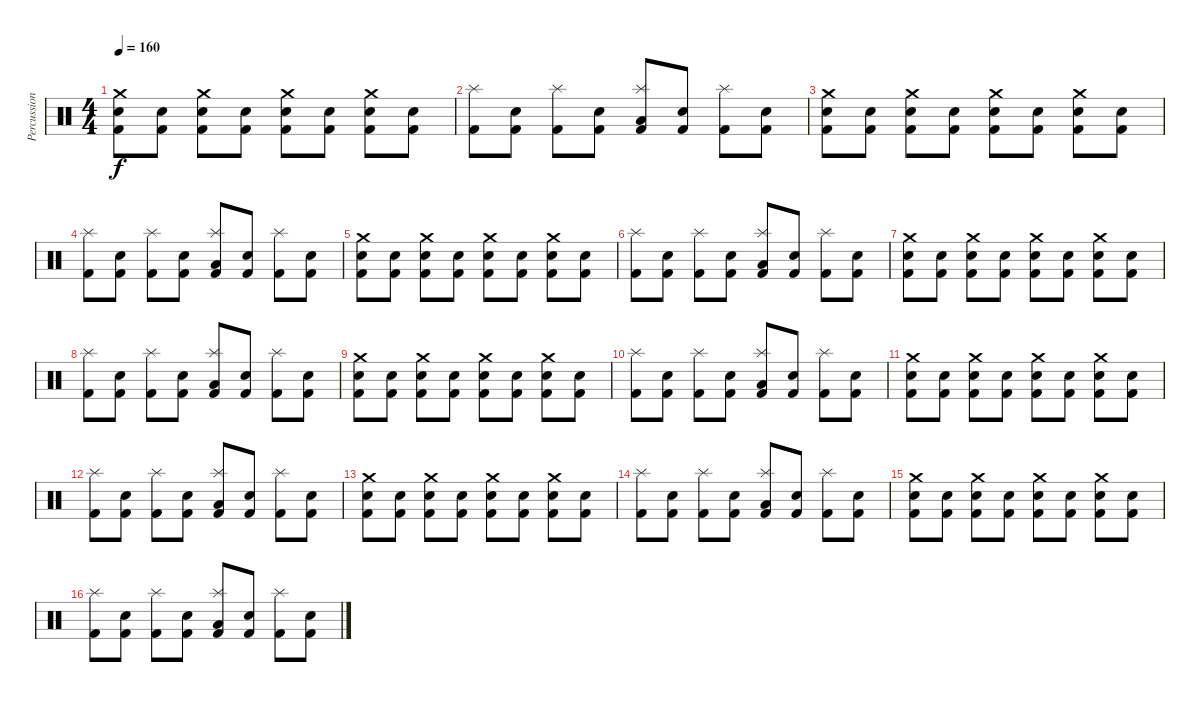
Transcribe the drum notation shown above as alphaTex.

\track ("Percussion" "Percussion") {instrument percussion}
\staff {score}
\articulation defaults
\ts (4 4)
\tempo 160
\clef neutral
\ks c
("Kick (hit) 2" "Snare (hit) 2" "Crash medium (hit)").8{dy f} ("Kick (hit) 2" "Snare (hit) 2").8 ("Kick (hit) 2" "Snare (hit) 2" "Crash medium (hit)").8 ("Kick (hit) 2" "Snare (hit) 2").8 ("Kick (hit) 2" "Snare (hit) 2" "Crash medium (hit)").8 ("Kick (hit) 2" "Snare (hit) 2").8 ("Kick (hit) 2" "Snare (hit) 2" "Crash medium (hit)").8 ("Kick (hit) 2" "Snare (hit) 2").8 |
("Kick (hit) 2" "Splash (hit)").8 ("Kick (hit) 2" "Snare (hit) 2").8 ("Kick (hit) 2" "Splash (hit)").8 ("Kick (hit) 2" "Snare (hit) 2").8 ("Kick (hit) 2" "Low Tom (hit)" "Splash (hit)").8 ("Kick (hit) 2" "Snare (hit) 2").8 ("Kick (hit) 2" "Splash (hit)").8 ("Kick (hit) 2" "Snare (hit) 2").8 |
("Kick (hit) 2" "Snare (hit) 2" "Crash medium (hit)").8 ("Kick (hit) 2" "Snare (hit) 2").8 ("Kick (hit) 2" "Snare (hit) 2" "Crash medium (hit)").8 ("Kick (hit) 2" "Snare (hit) 2").8 ("Kick (hit) 2" "Snare (hit) 2" "Crash medium (hit)").8 ("Kick (hit) 2" "Snare (hit) 2").8 ("Kick (hit) 2" "Snare (hit) 2" "Crash medium (hit)").8 ("Kick (hit) 2" "Snare (hit) 2").8 |
("Kick (hit) 2" "Splash (hit)").8 ("Kick (hit) 2" "Snare (hit) 2").8 ("Kick (hit) 2" "Splash (hit)").8 ("Kick (hit) 2" "Snare (hit) 2").8 ("Kick (hit) 2" "Low Tom (hit)" "Splash (hit)").8 ("Kick (hit) 2" "Snare (hit) 2").8 ("Kick (hit) 2" "Splash (hit)").8 ("Kick (hit) 2" "Snare (hit) 2").8 |
("Kick (hit) 2" "Snare (hit) 2" "Crash medium (hit)").8 ("Kick (hit) 2" "Snare (hit) 2").8 ("Kick (hit) 2" "Snare (hit) 2" "Crash medium (hit)").8 ("Kick (hit) 2" "Snare (hit) 2").8 ("Kick (hit) 2" "Snare (hit) 2" "Crash medium (hit)").8 ("Kick (hit) 2" "Snare (hit) 2").8 ("Kick (hit) 2" "Snare (hit) 2" "Crash medium (hit)").8 ("Kick (hit) 2" "Snare (hit) 2").8 |
("Kick (hit) 2" "Splash (hit)").8 ("Kick (hit) 2" "Snare (hit) 2").8 ("Kick (hit) 2" "Splash (hit)").8 ("Kick (hit) 2" "Snare (hit) 2").8 ("Kick (hit) 2" "Low Tom (hit)" "Splash (hit)").8 ("Kick (hit) 2" "Snare (hit) 2").8 ("Kick (hit) 2" "Splash (hit)").8 ("Kick (hit) 2" "Snare (hit) 2").8 |
("Kick (hit) 2" "Snare (hit) 2" "Crash medium (hit)").8 ("Kick (hit) 2" "Snare (hit) 2").8 ("Kick (hit) 2" "Snare (hit) 2" "Crash medium (hit)").8 ("Kick (hit) 2" "Snare (hit) 2").8 ("Kick (hit) 2" "Snare (hit) 2" "Crash medium (hit)").8 ("Kick (hit) 2" "Snare (hit) 2").8 ("Kick (hit) 2" "Snare (hit) 2" "Crash medium (hit)").8 ("Kick (hit) 2" "Snare (hit) 2").8 |
("Kick (hit) 2" "Splash (hit)").8 ("Kick (hit) 2" "Snare (hit) 2").8 ("Kick (hit) 2" "Splash (hit)").8 ("Kick (hit) 2" "Snare (hit) 2").8 ("Kick (hit) 2" "Low Tom (hit)" "Splash (hit)").8 ("Kick (hit) 2" "Snare (hit) 2").8 ("Kick (hit) 2" "Splash (hit)").8 ("Kick (hit) 2" "Snare (hit) 2").8 |
("Kick (hit) 2" "Snare (hit) 2" "Crash medium (hit)").8 ("Kick (hit) 2" "Snare (hit) 2").8 ("Kick (hit) 2" "Snare (hit) 2" "Crash medium (hit)").8 ("Kick (hit) 2" "Snare (hit) 2").8 ("Kick (hit) 2" "Snare (hit) 2" "Crash medium (hit)").8 ("Kick (hit) 2" "Snare (hit) 2").8 ("Kick (hit) 2" "Snare (hit) 2" "Crash medium (hit)").8 ("Kick (hit) 2" "Snare (hit) 2").8 |
("Kick (hit) 2" "Splash (hit)").8 ("Kick (hit) 2" "Snare (hit) 2").8 ("Kick (hit) 2" "Splash (hit)").8 ("Kick (hit) 2" "Snare (hit) 2").8 ("Kick (hit) 2" "Low Tom (hit)" "Splash (hit)").8 ("Kick (hit) 2" "Snare (hit) 2").8 ("Kick (hit) 2" "Splash (hit)").8 ("Kick (hit) 2" "Snare (hit) 2").8 |
("Kick (hit) 2" "Snare (hit) 2" "Crash medium (hit)").8 ("Kick (hit) 2" "Snare (hit) 2").8 ("Kick (hit) 2" "Snare (hit) 2" "Crash medium (hit)").8 ("Kick (hit) 2" "Snare (hit) 2").8 ("Kick (hit) 2" "Snare (hit) 2" "Crash medium (hit)").8 ("Kick (hit) 2" "Snare (hit) 2").8 ("Kick (hit) 2" "Snare (hit) 2" "Crash medium (hit)").8 ("Kick (hit) 2" "Snare (hit) 2").8 |
("Kick (hit) 2" "Splash (hit)").8 ("Kick (hit) 2" "Snare (hit) 2").8 ("Kick (hit) 2" "Splash (hit)").8 ("Kick (hit) 2" "Snare (hit) 2").8 ("Kick (hit) 2" "Low Tom (hit)" "Splash (hit)").8 ("Kick (hit) 2" "Snare (hit) 2").8 ("Kick (hit) 2" "Splash (hit)").8 ("Kick (hit) 2" "Snare (hit) 2").8 |
("Kick (hit) 2" "Snare (hit) 2" "Crash medium (hit)").8 ("Kick (hit) 2" "Snare (hit) 2").8 ("Kick (hit) 2" "Snare (hit) 2" "Crash medium (hit)").8 ("Kick (hit) 2" "Snare (hit) 2").8 ("Kick (hit) 2" "Snare (hit) 2" "Crash medium (hit)").8 ("Kick (hit) 2" "Snare (hit) 2").8 ("Kick (hit) 2" "Snare (hit) 2" "Crash medium (hit)").8 ("Kick (hit) 2" "Snare (hit) 2").8 |
("Kick (hit) 2" "Splash (hit)").8 ("Kick (hit) 2" "Snare (hit) 2").8 ("Kick (hit) 2" "Splash (hit)").8 ("Kick (hit) 2" "Snare (hit) 2").8 ("Kick (hit) 2" "Low Tom (hit)" "Splash (hit)").8 ("Kick (hit) 2" "Snare (hit) 2").8 ("Kick (hit) 2" "Splash (hit)").8 ("Kick (hit) 2" "Snare (hit) 2").8 |
("Kick (hit) 2" "Snare (hit) 2" "Crash medium (hit)").8 ("Kick (hit) 2" "Snare (hit) 2").8 ("Kick (hit) 2" "Snare (hit) 2" "Crash medium (hit)").8 ("Kick (hit) 2" "Snare (hit) 2").8 ("Kick (hit) 2" "Snare (hit) 2" "Crash medium (hit)").8 ("Kick (hit) 2" "Snare (hit) 2").8 ("Kick (hit) 2" "Snare (hit) 2" "Crash medium (hit)").8 ("Kick (hit) 2" "Snare (hit) 2").8 |
("Kick (hit) 2" "Splash (hit)").8 ("Kick (hit) 2" "Snare (hit) 2").8 ("Kick (hit) 2" "Splash (hit)").8 ("Kick (hit) 2" "Snare (hit) 2").8 ("Kick (hit) 2" "Low Tom (hit)" "Splash (hit)").8 ("Kick (hit) 2" "Snare (hit) 2").8 ("Kick (hit) 2" "Splash (hit)").8 ("Kick (hit) 2" "Snare (hit) 2").8
